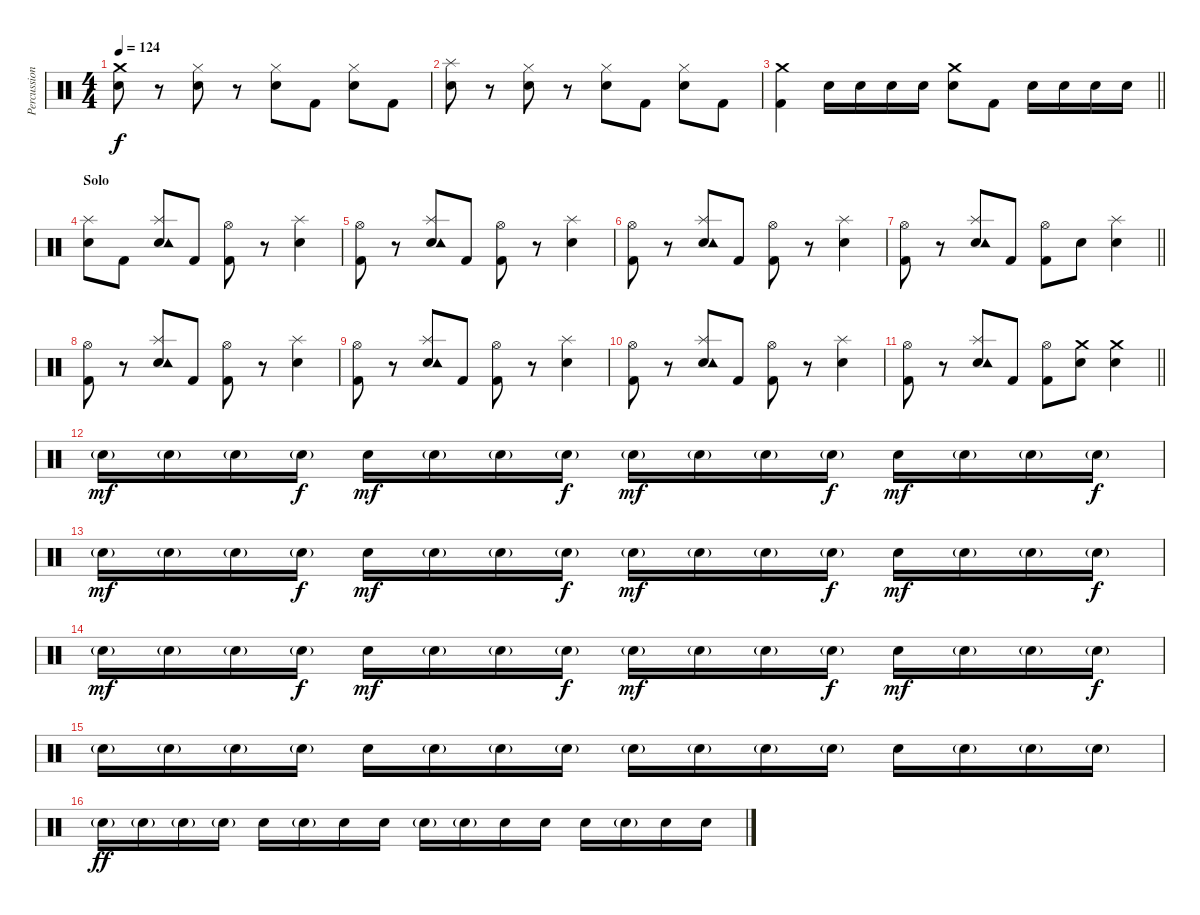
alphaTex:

\track ("Percussion" "Percussion") {instrument percussion}
\staff {score}
\articulation defaults
\ts (4 4)
\tempo 124
\clef neutral
\ks c
("Crash medium (hit)" "Electric Snare (hit)").8{dy f} r.8 ("Electric Snare (hit)" "Hi-Hat (closed)").8 r.8 ("Electric Snare (hit)" "Hi-Hat (closed)").8 "Kick (hit) 2".8 ("Electric Snare (hit)" "Hi-Hat (closed)").8 "Kick (hit) 2".8 |
("Splash (hit)" "Electric Snare (hit)").8 r.8 ("Electric Snare (hit)" "Hi-Hat (closed)").8 r.8 ("Electric Snare (hit)" "Hi-Hat (closed)").8 "Kick (hit) 2".8 ("Electric Snare (hit)" "Hi-Hat (closed)").8 "Kick (hit) 2".8 |
\barLineRight lightlight
("Crash medium (hit)" "Kick (hit) 2").4 "Electric Snare (hit)".16 "Electric Snare (hit)".16 "Electric Snare (hit)".16 "Electric Snare (hit)".16 ("Crash medium (hit)" "Electric Snare (hit)").8 "Kick (hit) 2".8 "Electric Snare (hit)".16 "Electric Snare (hit)".16 "Electric Snare (hit)".16 "Electric Snare (hit)".16 |
\section ("" "Solo")
("Splash (hit)" "Electric Snare (hit)").8 "Kick (hit) 2".8 ("Splash (hit)" "Electric Snare (hit)" "Tambourine (hit)").8 "Kick (hit) 2".8 ("Hi-Hat (open)" "Kick (hit) 2").8 r.8 ("Splash (hit)" "Electric Snare (hit)").4 |
("Hi-Hat (open)" "Kick (hit) 2").8 r.8 ("Splash (hit)" "Electric Snare (hit)" "Tambourine (hit)").8 "Kick (hit) 2".8 ("Hi-Hat (open)" "Kick (hit) 2").8 r.8 ("Splash (hit)" "Electric Snare (hit)").4 |
("Hi-Hat (open)" "Kick (hit) 2").8 r.8 ("Splash (hit)" "Electric Snare (hit)" "Tambourine (hit)").8 "Kick (hit) 2".8 ("Hi-Hat (open)" "Kick (hit) 2").8 r.8 ("Splash (hit)" "Electric Snare (hit)").4 |
\barLineRight lightlight
("Hi-Hat (open)" "Kick (hit) 2").8 r.8 ("Splash (hit)" "Electric Snare (hit)" "Tambourine (hit)").8 "Kick (hit) 2".8 ("Hi-Hat (open)" "Kick (hit) 2").8 "Electric Snare (hit)".8 ("Splash (hit)" "Electric Snare (hit)").4 |
("Hi-Hat (open)" "Kick (hit) 2").8 r.8 ("Splash (hit)" "Electric Snare (hit)" "Tambourine (hit)").8 "Kick (hit) 2".8 ("Hi-Hat (open)" "Kick (hit) 2").8 r.8 ("Splash (hit)" "Electric Snare (hit)").4 |
("Hi-Hat (open)" "Kick (hit) 2").8 r.8 ("Splash (hit)" "Electric Snare (hit)" "Tambourine (hit)").8 "Kick (hit) 2".8 ("Hi-Hat (open)" "Kick (hit) 2").8 r.8 ("Splash (hit)" "Electric Snare (hit)").4 |
("Hi-Hat (open)" "Kick (hit) 2").8 r.8 ("Splash (hit)" "Electric Snare (hit)" "Tambourine (hit)").8 "Kick (hit) 2".8 ("Hi-Hat (open)" "Kick (hit) 2").8 r.8 ("Splash (hit)" "Electric Snare (hit)").4 |
\barLineRight lightlight
("Hi-Hat (open)" "Kick (hit) 2").8 r.8 ("Splash (hit)" "Electric Snare (hit)" "Tambourine (hit)").8 "Kick (hit) 2".8 ("Hi-Hat (open)" "Kick (hit) 2").8 ("Crash medium (hit)" "Electric Snare (hit)").8 ("Crash medium (hit)" "Electric Snare (hit)").4 |
"Electric Snare (hit)"{g}.16{dy mf} "Electric Snare (hit)"{g}.16 "Electric Snare (hit)"{g}.16 "Electric Snare (hit)"{g}.16{dy f} "Electric Snare (hit)".16{dy mf} "Electric Snare (hit)"{g}.16 "Electric Snare (hit)"{g}.16 "Electric Snare (hit)"{g}.16{dy f} "Electric Snare (hit)"{g}.16{dy mf} "Electric Snare (hit)"{g}.16 "Electric Snare (hit)"{g}.16 "Electric Snare (hit)"{g}.16{dy f} "Electric Snare (hit)".16{dy mf} "Electric Snare (hit)"{g}.16 "Electric Snare (hit)"{g}.16 "Electric Snare (hit)"{g}.16{dy f} |
"Electric Snare (hit)"{g}.16{dy mf} "Electric Snare (hit)"{g}.16 "Electric Snare (hit)"{g}.16 "Electric Snare (hit)"{g}.16{dy f} "Electric Snare (hit)".16{dy mf} "Electric Snare (hit)"{g}.16 "Electric Snare (hit)"{g}.16 "Electric Snare (hit)"{g}.16{dy f} "Electric Snare (hit)"{g}.16{dy mf} "Electric Snare (hit)"{g}.16 "Electric Snare (hit)"{g}.16 "Electric Snare (hit)"{g}.16{dy f} "Electric Snare (hit)".16{dy mf} "Electric Snare (hit)"{g}.16 "Electric Snare (hit)"{g}.16 "Electric Snare (hit)"{g}.16{dy f} |
"Electric Snare (hit)"{g}.16{dy mf} "Electric Snare (hit)"{g}.16 "Electric Snare (hit)"{g}.16 "Electric Snare (hit)"{g}.16{dy f} "Electric Snare (hit)".16{dy mf} "Electric Snare (hit)"{g}.16 "Electric Snare (hit)"{g}.16 "Electric Snare (hit)"{g}.16{dy f} "Electric Snare (hit)"{g}.16{dy mf} "Electric Snare (hit)"{g}.16 "Electric Snare (hit)"{g}.16 "Electric Snare (hit)"{g}.16{dy f} "Electric Snare (hit)".16{dy mf} "Electric Snare (hit)"{g}.16 "Electric Snare (hit)"{g}.16 "Electric Snare (hit)"{g}.16{dy f} |
"Electric Snare (hit)"{g}.16 "Electric Snare (hit)"{g}.16 "Electric Snare (hit)"{g}.16 "Electric Snare (hit)"{g}.16 "Electric Snare (hit)".16 "Electric Snare (hit)"{g}.16 "Electric Snare (hit)"{g}.16 "Electric Snare (hit)"{g}.16 "Electric Snare (hit)"{g}.16 "Electric Snare (hit)"{g}.16 "Electric Snare (hit)"{g}.16 "Electric Snare (hit)"{g}.16 "Electric Snare (hit)".16 "Electric Snare (hit)"{g}.16 "Electric Snare (hit)"{g}.16 "Electric Snare (hit)"{g}.16 |
"Electric Snare (hit)"{g}.16{dy ff} "Electric Snare (hit)"{g}.16 "Electric Snare (hit)"{g}.16 "Electric Snare (hit)"{g}.16 "Electric Snare (hit)".16 "Electric Snare (hit)"{g}.16 "Electric Snare (hit)".16 "Electric Snare (hit)".16 "Electric Snare (hit)"{g}.16 "Electric Snare (hit)"{g}.16 "Electric Snare (hit)".16 "Electric Snare (hit)".16 "Electric Snare (hit)".16 "Electric Snare (hit)"{g}.16 "Electric Snare (hit)".16 "Electric Snare (hit)".16
